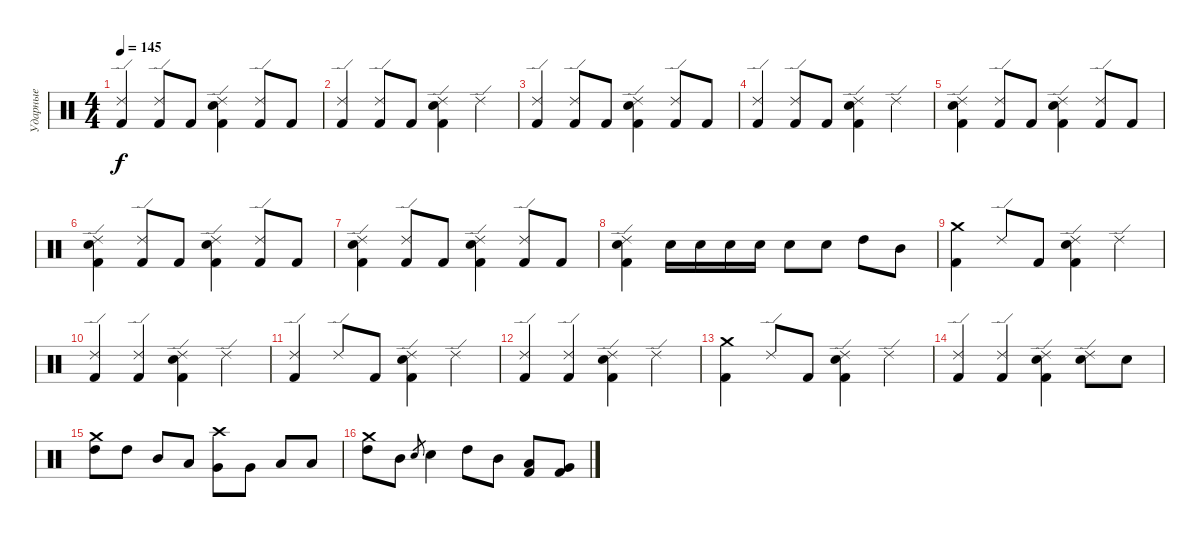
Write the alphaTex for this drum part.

\track ("Ударные" "Ударные") {instrument percussion}
\staff {score}
\articulation defaults
\ts (4 4)
\tempo 145
\clef neutral
\ks c
("Ride (edge) 2" "Kick (hit) 2").4{dy f} ("Ride (edge) 2" "Kick (hit) 2").8 "Kick (hit) 2".8 ("Ride (edge) 2" "Electric Snare (hit)" "Kick (hit) 2").4 ("Ride (edge) 2" "Kick (hit) 2").8 "Kick (hit) 2".8 |
("Ride (edge) 2" "Kick (hit) 2").4 ("Ride (edge) 2" "Kick (hit) 2").8 "Kick (hit) 2".8 ("Ride (edge) 2" "Electric Snare (hit)" "Kick (hit) 2").4 "Ride (edge) 2".4 |
("Ride (edge) 2" "Kick (hit) 2").4 ("Ride (edge) 2" "Kick (hit) 2").8 "Kick (hit) 2".8 ("Ride (edge) 2" "Electric Snare (hit)" "Kick (hit) 2").4 ("Ride (edge) 2" "Kick (hit) 2").8 "Kick (hit) 2".8 |
("Ride (edge) 2" "Kick (hit) 2").4 ("Ride (edge) 2" "Kick (hit) 2").8 "Kick (hit) 2".8 ("Ride (edge) 2" "Electric Snare (hit)" "Kick (hit) 2").4 "Ride (edge) 2".4 |
("Ride (edge) 2" "Electric Snare (hit)" "Kick (hit) 2").4 ("Ride (edge) 2" "Kick (hit) 2").8 "Kick (hit) 2".8 ("Ride (edge) 2" "Electric Snare (hit)" "Kick (hit) 2").4 ("Ride (edge) 2" "Kick (hit) 2").8 "Kick (hit) 2".8 |
("Ride (edge) 2" "Electric Snare (hit)" "Kick (hit) 2").4 ("Ride (edge) 2" "Kick (hit) 2").8 "Kick (hit) 2".8 ("Ride (edge) 2" "Electric Snare (hit)" "Kick (hit) 2").4 ("Ride (edge) 2" "Kick (hit) 2").8 "Kick (hit) 2".8 |
("Ride (edge) 2" "Electric Snare (hit)" "Kick (hit) 2").4 ("Ride (edge) 2" "Kick (hit) 2").8 "Kick (hit) 2".8 ("Ride (edge) 2" "Electric Snare (hit)" "Kick (hit) 2").4 ("Ride (edge) 2" "Kick (hit) 2").8 "Kick (hit) 2".8 |
("Ride (edge) 2" "Electric Snare (hit)" "Kick (hit) 2").4 "Electric Snare (hit)".16 "Electric Snare (hit)".16 "Electric Snare (hit)".16 "Electric Snare (hit)".16 "Electric Snare (hit)".8 "Electric Snare (hit)".8 "High Tom (hit)".8 "Mid Tom (hit)".8 |
("Crash medium (hit)" "Kick (hit) 2").4 "Ride (edge) 2".8 "Kick (hit) 2".8 ("Ride (edge) 2" "Electric Snare (hit)" "Kick (hit) 2").4 "Ride (edge) 2".4 |
("Ride (edge) 2" "Kick (hit) 2").4 ("Ride (edge) 2" "Kick (hit) 2").4 ("Ride (edge) 2" "Electric Snare (hit)" "Kick (hit) 2").4 "Ride (edge) 2".4 |
("Ride (edge) 2" "Kick (hit) 2").4 "Ride (edge) 2".8 "Kick (hit) 2".8 ("Ride (edge) 2" "Electric Snare (hit)" "Kick (hit) 2").4 "Ride (edge) 2".4 |
("Ride (edge) 2" "Kick (hit) 2").4 ("Ride (edge) 2" "Kick (hit) 2").4 ("Ride (edge) 2" "Electric Snare (hit)" "Kick (hit) 2").4 "Ride (edge) 2".4 |
("Crash medium (hit)" "Kick (hit) 2").4 "Ride (edge) 2".8 "Kick (hit) 2".8 ("Ride (edge) 2" "Electric Snare (hit)" "Kick (hit) 2").4 "Ride (edge) 2".4 |
("Ride (edge) 2" "Kick (hit) 2").4 ("Ride (edge) 2" "Kick (hit) 2").4 ("Ride (edge) 2" "Electric Snare (hit)" "Kick (hit) 2").4 ("Electric Snare (hit)" "Ride (edge) 2").8 "Electric Snare (hit)".8 |
("High Tom (hit)" "Crash medium (hit)").8 "High Tom (hit)".8 "Mid Tom (hit)".8 "Low Tom (hit)".8 ("Very Low Tom (hit)" "Crash high (hit)").8 "Very Low Tom (hit)".8 "Low Floor Tom (hit)".8 "Low Floor Tom (hit)".8 |
("Crash medium (hit)" "High Tom (hit)").8 "Mid Tom (hit)".8 "Electric Snare (hit)".8{gr} "Electric Snare (hit)".4 "High Tom (hit)".8 "Mid Tom (hit)".8 ("Low Tom (hit)" "Kick (hit) 2").8 ("Very Low Tom (hit)" "Kick (hit) 2").8
